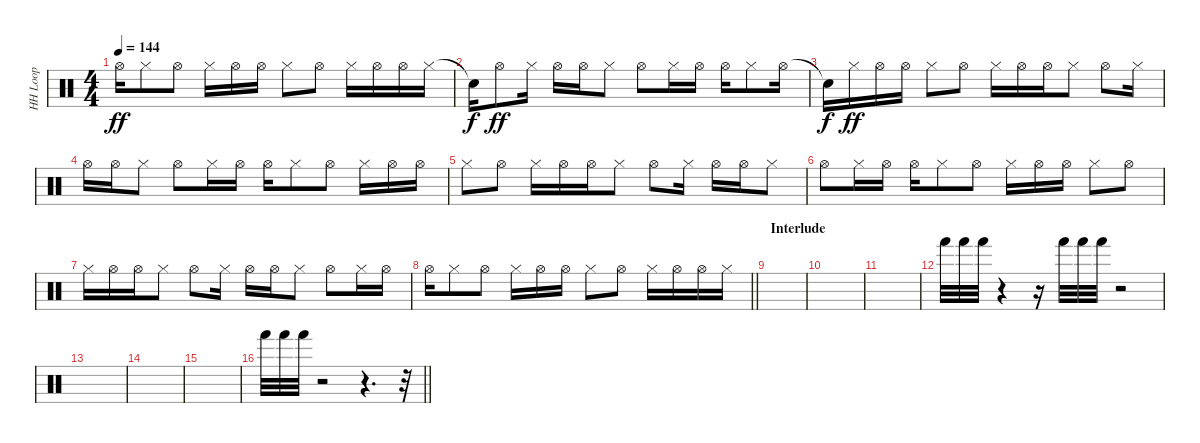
\track ("HH Loop" "HH Loop") {instrument percussion}
\staff {score}
\articulation defaults
\ts (4 4)
\tempo 144
\clef neutral
\ks c "Hi-Hat (open)".16{dy ff} "Hi-Hat (closed)".8 "Hi-Hat (open)".8 "Hi-Hat (closed)".16 "Hi-Hat (open)".16 "Hi-Hat (open)".16 "Hi-Hat (closed)".8 "Hi-Hat (open)".8 "Hi-Hat (closed)".16 "Hi-Hat (open)".16 "Hi-Hat (open)".16 "Hi-Hat (closed)".16
|
"Snare (hit)"{t}.16{dy f} "Hi-Hat (open)".8{dy ff} "Hi-Hat (closed)".16 "Hi-Hat (open)".16 "Hi-Hat (open)".16 "Hi-Hat (closed)".8 "Hi-Hat (open)".8 "Hi-Hat (closed)".16 "Hi-Hat (open)".16 "Hi-Hat (open)".16 "Hi-Hat (closed)".8 "Hi-Hat (open)".16 |
"Snare (hit)"{t}.16{dy f} "Hi-Hat (closed)".16{dy ff} "Hi-Hat (open)".16 "Hi-Hat (open)".16 "Hi-Hat (closed)".8 "Hi-Hat (open)".8 "Hi-Hat (closed)".16 "Hi-Hat (open)".16 "Hi-Hat (open)".16 "Hi-Hat (closed)".8 "Hi-Hat (open)".8 "Hi-Hat (closed)".16 |
"Hi-Hat (open)".16 "Hi-Hat (open)".16 "Hi-Hat (closed)".8 "Hi-Hat (open)".8 "Hi-Hat (closed)".16 "Hi-Hat (open)".16 "Hi-Hat (open)".16 "Hi-Hat (closed)".8 "Hi-Hat (open)".8 "Hi-Hat (closed)".16 "Hi-Hat (open)".16 "Hi-Hat (open)".16 |
"Hi-Hat (closed)".8 "Hi-Hat (open)".8 "Hi-Hat (closed)".16 "Hi-Hat (open)".16 "Hi-Hat (open)".16 "Hi-Hat (closed)".8 "Hi-Hat (open)".8 "Hi-Hat (closed)".16 "Hi-Hat (open)".16 "Hi-Hat (open)".16 "Hi-Hat (closed)".8 |
"Hi-Hat (open)".8 "Hi-Hat (closed)".16 "Hi-Hat (open)".16 "Hi-Hat (open)".16 "Hi-Hat (closed)".8 "Hi-Hat (open)".8 "Hi-Hat (closed)".16 "Hi-Hat (open)".16 "Hi-Hat (open)".16 "Hi-Hat (closed)".8 "Hi-Hat (open)".8 |
"Hi-Hat (closed)".16 "Hi-Hat (open)".16 "Hi-Hat (open)".16 "Hi-Hat (closed)".8 "Hi-Hat (open)".8 "Hi-Hat (closed)".16 "Hi-Hat (open)".16 "Hi-Hat (open)".16 "Hi-Hat (closed)".8 "Hi-Hat (open)".8 "Hi-Hat (closed)".16 "Hi-Hat (open)".16 |
\barLineRight lightlight "Hi-Hat (open)".16 "Hi-Hat (closed)".8 "Hi-Hat (open)".8 "Hi-Hat (closed)".16 "Hi-Hat (open)".16 "Hi-Hat (open)".16 "Hi-Hat (closed)".8 "Hi-Hat (open)".8 "Hi-Hat (closed)".16 "Hi-Hat (open)".16 "Hi-Hat (open)".16 "Hi-Hat (closed)".16
|
\section ("" "Interlude")
|
|
|
"Hand (hit)".32 "Hand (hit)".32 "Hand (hit)".32 r.4 r.16 "Hand (hit)".32 "Hand (hit)".32 "Hand (hit)".32 r.2 |
|
|
|
\barLineRight lightlight "Hand (hit)".32 "Hand (hit)".32 "Hand (hit)".32
r.2 r.4{d} r.32
